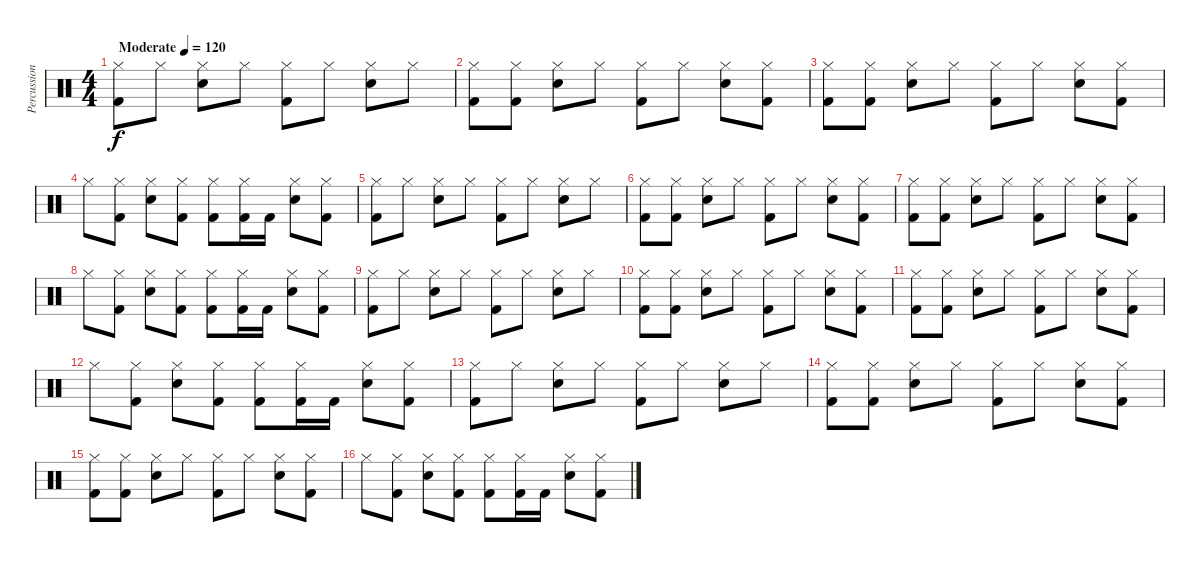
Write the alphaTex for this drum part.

\track ("Percussions" "Percussion") {instrument percussion}
\staff {score}
\articulation defaults
\ts (4 4)
\tempo (120 "Moderate")
\clef neutral
\ks c
("Hi-Hat (closed)" "Kick (hit) 2").8{dy f} "Hi-Hat (closed)".8 ("Hi-Hat (closed)" "Snare (hit) 2").8 "Hi-Hat (closed)".8 ("Hi-Hat (closed)" "Kick (hit) 2").8 "Hi-Hat (closed)".8 ("Hi-Hat (closed)" "Snare (hit) 2").8 "Hi-Hat (closed)".8 |
("Hi-Hat (closed)" "Kick (hit) 2").8 ("Hi-Hat (closed)" "Kick (hit) 2").8 ("Hi-Hat (closed)" "Snare (hit) 2").8 "Hi-Hat (closed)".8 ("Hi-Hat (closed)" "Kick (hit) 2").8 "Hi-Hat (closed)".8 ("Hi-Hat (closed)" "Snare (hit) 2").8 ("Hi-Hat (closed)" "Kick (hit) 2").8 |
("Hi-Hat (closed)" "Kick (hit) 2").8 ("Hi-Hat (closed)" "Kick (hit) 2").8 ("Hi-Hat (closed)" "Snare (hit) 2").8 "Hi-Hat (closed)".8 ("Hi-Hat (closed)" "Kick (hit) 2").8 "Hi-Hat (closed)".8 ("Hi-Hat (closed)" "Snare (hit) 2").8 ("Hi-Hat (closed)" "Kick (hit) 2").8 |
"Hi-Hat (closed)".8 ("Hi-Hat (closed)" "Kick (hit) 2").8 ("Hi-Hat (closed)" "Snare (hit) 2").8 ("Hi-Hat (closed)" "Kick (hit) 2").8 ("Hi-Hat (closed)" "Kick (hit) 2").8 ("Hi-Hat (closed)" "Kick (hit) 2").16 "Kick (hit) 2".16 ("Hi-Hat (closed)" "Snare (hit) 2").8 ("Hi-Hat (closed)" "Kick (hit) 2").8 |
("Hi-Hat (closed)" "Kick (hit) 2").8 "Hi-Hat (closed)".8 ("Hi-Hat (closed)" "Snare (hit) 2").8 "Hi-Hat (closed)".8 ("Hi-Hat (closed)" "Kick (hit) 2").8 "Hi-Hat (closed)".8 ("Hi-Hat (closed)" "Snare (hit) 2").8 "Hi-Hat (closed)".8 |
("Hi-Hat (closed)" "Kick (hit) 2").8 ("Hi-Hat (closed)" "Kick (hit) 2").8 ("Hi-Hat (closed)" "Snare (hit) 2").8 "Hi-Hat (closed)".8 ("Hi-Hat (closed)" "Kick (hit) 2").8 "Hi-Hat (closed)".8 ("Hi-Hat (closed)" "Snare (hit) 2").8 ("Hi-Hat (closed)" "Kick (hit) 2").8 |
("Hi-Hat (closed)" "Kick (hit) 2").8 ("Hi-Hat (closed)" "Kick (hit) 2").8 ("Hi-Hat (closed)" "Snare (hit) 2").8 "Hi-Hat (closed)".8 ("Hi-Hat (closed)" "Kick (hit) 2").8 "Hi-Hat (closed)".8 ("Hi-Hat (closed)" "Snare (hit) 2").8 ("Hi-Hat (closed)" "Kick (hit) 2").8 |
"Hi-Hat (closed)".8 ("Hi-Hat (closed)" "Kick (hit) 2").8 ("Hi-Hat (closed)" "Snare (hit) 2").8 ("Hi-Hat (closed)" "Kick (hit) 2").8 ("Hi-Hat (closed)" "Kick (hit) 2").8 ("Hi-Hat (closed)" "Kick (hit) 2").16 "Kick (hit) 2".16 ("Hi-Hat (closed)" "Snare (hit) 2").8 ("Hi-Hat (closed)" "Kick (hit) 2").8 |
("Hi-Hat (closed)" "Kick (hit) 2").8 "Hi-Hat (closed)".8 ("Hi-Hat (closed)" "Snare (hit) 2").8 "Hi-Hat (closed)".8 ("Hi-Hat (closed)" "Kick (hit) 2").8 "Hi-Hat (closed)".8 ("Hi-Hat (closed)" "Snare (hit) 2").8 "Hi-Hat (closed)".8 |
("Hi-Hat (closed)" "Kick (hit) 2").8 ("Hi-Hat (closed)" "Kick (hit) 2").8 ("Hi-Hat (closed)" "Snare (hit) 2").8 "Hi-Hat (closed)".8 ("Hi-Hat (closed)" "Kick (hit) 2").8 "Hi-Hat (closed)".8 ("Hi-Hat (closed)" "Snare (hit) 2").8 ("Hi-Hat (closed)" "Kick (hit) 2").8 |
("Hi-Hat (closed)" "Kick (hit) 2").8 ("Hi-Hat (closed)" "Kick (hit) 2").8 ("Hi-Hat (closed)" "Snare (hit) 2").8 "Hi-Hat (closed)".8 ("Hi-Hat (closed)" "Kick (hit) 2").8 "Hi-Hat (closed)".8 ("Hi-Hat (closed)" "Snare (hit) 2").8 ("Hi-Hat (closed)" "Kick (hit) 2").8 |
"Hi-Hat (closed)".8 ("Hi-Hat (closed)" "Kick (hit) 2").8 ("Hi-Hat (closed)" "Snare (hit) 2").8 ("Hi-Hat (closed)" "Kick (hit) 2").8 ("Hi-Hat (closed)" "Kick (hit) 2").8 ("Hi-Hat (closed)" "Kick (hit) 2").16 "Kick (hit) 2".16 ("Hi-Hat (closed)" "Snare (hit) 2").8 ("Hi-Hat (closed)" "Kick (hit) 2").8 |
("Hi-Hat (closed)" "Kick (hit) 2").8 "Hi-Hat (closed)".8 ("Hi-Hat (closed)" "Snare (hit) 2").8 "Hi-Hat (closed)".8 ("Hi-Hat (closed)" "Kick (hit) 2").8 "Hi-Hat (closed)".8 ("Hi-Hat (closed)" "Snare (hit) 2").8 "Hi-Hat (closed)".8 |
("Hi-Hat (closed)" "Kick (hit) 2").8 ("Hi-Hat (closed)" "Kick (hit) 2").8 ("Hi-Hat (closed)" "Snare (hit) 2").8 "Hi-Hat (closed)".8 ("Hi-Hat (closed)" "Kick (hit) 2").8 "Hi-Hat (closed)".8 ("Hi-Hat (closed)" "Snare (hit) 2").8 ("Hi-Hat (closed)" "Kick (hit) 2").8 |
("Hi-Hat (closed)" "Kick (hit) 2").8 ("Hi-Hat (closed)" "Kick (hit) 2").8 ("Hi-Hat (closed)" "Snare (hit) 2").8 "Hi-Hat (closed)".8 ("Hi-Hat (closed)" "Kick (hit) 2").8 "Hi-Hat (closed)".8 ("Hi-Hat (closed)" "Snare (hit) 2").8 ("Hi-Hat (closed)" "Kick (hit) 2").8 |
"Hi-Hat (closed)".8 ("Hi-Hat (closed)" "Kick (hit) 2").8 ("Hi-Hat (closed)" "Snare (hit) 2").8 ("Hi-Hat (closed)" "Kick (hit) 2").8 ("Hi-Hat (closed)" "Kick (hit) 2").8 ("Hi-Hat (closed)" "Kick (hit) 2").16 "Kick (hit) 2".16 ("Hi-Hat (closed)" "Snare (hit) 2").8 ("Hi-Hat (closed)" "Kick (hit) 2").8
